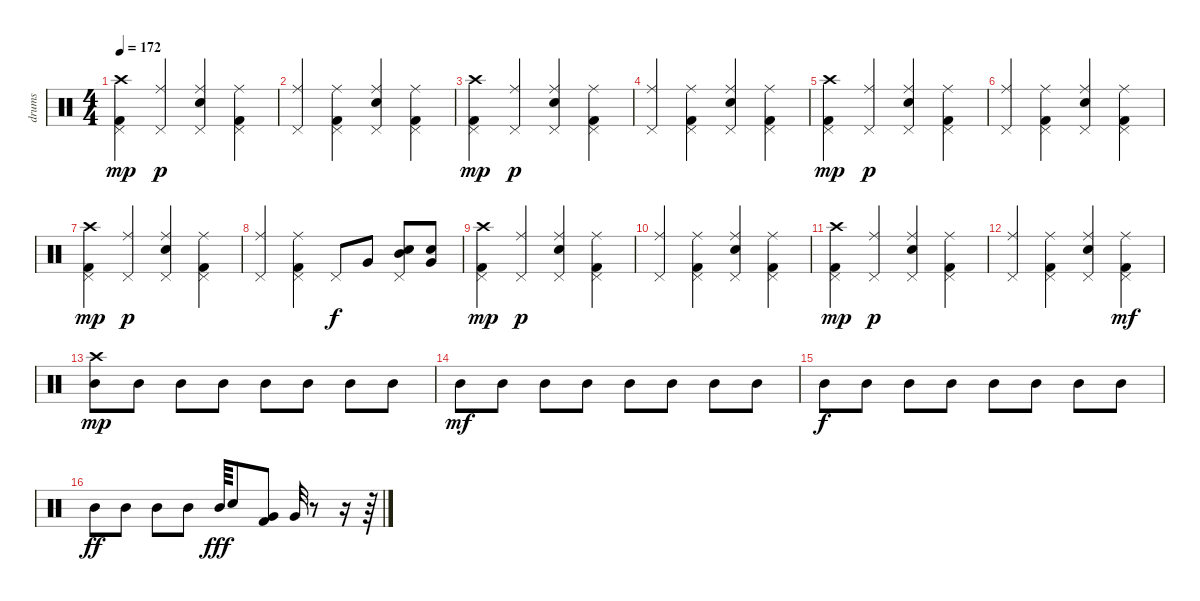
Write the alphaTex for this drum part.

\track ("drums" "drums") {instrument percussion}
\staff {score}
\articulation defaults
\ts (4 4)
\tempo 172
\clef neutral
\ks c
("Crash high (hit)" "Kick (hit) 2" "Pedal Hi-Hat (hit)").4{dy mp} ("Ride (middle)" "Pedal Hi-Hat (hit)").4{dy p} ("Ride (middle)" "Electric Snare (hit)" "Pedal Hi-Hat (hit)").4 ("Ride (middle)" "Kick (hit) 2" "Pedal Hi-Hat (hit)").4 |
("Ride (middle)" "Pedal Hi-Hat (hit)").4 ("Ride (middle)" "Kick (hit) 2" "Pedal Hi-Hat (hit)").4 ("Ride (middle)" "Electric Snare (hit)" "Pedal Hi-Hat (hit)").4 ("Ride (middle)" "Kick (hit) 2" "Pedal Hi-Hat (hit)").4 |
("Crash high (hit)" "Kick (hit) 2" "Pedal Hi-Hat (hit)").4{dy mp} ("Ride (middle)" "Pedal Hi-Hat (hit)").4{dy p} ("Ride (middle)" "Electric Snare (hit)" "Pedal Hi-Hat (hit)").4 ("Ride (middle)" "Kick (hit) 2" "Pedal Hi-Hat (hit)").4 |
("Ride (middle)" "Pedal Hi-Hat (hit)").4 ("Ride (middle)" "Kick (hit) 2" "Pedal Hi-Hat (hit)").4 ("Ride (middle)" "Electric Snare (hit)" "Pedal Hi-Hat (hit)").4 ("Ride (middle)" "Kick (hit) 2" "Pedal Hi-Hat (hit)").4 |
("Crash high (hit)" "Kick (hit) 2" "Pedal Hi-Hat (hit)").4{dy mp} ("Ride (middle)" "Pedal Hi-Hat (hit)").4{dy p} ("Ride (middle)" "Electric Snare (hit)" "Pedal Hi-Hat (hit)").4 ("Ride (middle)" "Kick (hit) 2" "Pedal Hi-Hat (hit)").4 |
("Ride (middle)" "Pedal Hi-Hat (hit)").4 ("Ride (middle)" "Kick (hit) 2" "Pedal Hi-Hat (hit)").4 ("Ride (middle)" "Electric Snare (hit)" "Pedal Hi-Hat (hit)").4 ("Ride (middle)" "Kick (hit) 2" "Pedal Hi-Hat (hit)").4 |
("Crash high (hit)" "Kick (hit) 2" "Pedal Hi-Hat (hit)").4{dy mp} ("Ride (middle)" "Pedal Hi-Hat (hit)").4{dy p} ("Ride (middle)" "Electric Snare (hit)" "Pedal Hi-Hat (hit)").4 ("Ride (middle)" "Kick (hit) 2" "Pedal Hi-Hat (hit)").4 |
("Ride (middle)" "Pedal Hi-Hat (hit)").4 ("Ride (middle)" "Kick (hit) 2" "Pedal Hi-Hat (hit)").4 "Pedal Hi-Hat (hit)".8{dy f} "Very Low Tom (hit)".8 ("Electric Snare (hit)" "Mid Tom (hit)" "Pedal Hi-Hat (hit)").8 ("Very Low Tom (hit)" "Electric Snare (hit)").8 |
("Crash high (hit)" "Kick (hit) 2" "Pedal Hi-Hat (hit)").4{dy mp} ("Ride (middle)" "Pedal Hi-Hat (hit)").4{dy p} ("Ride (middle)" "Electric Snare (hit)" "Pedal Hi-Hat (hit)").4 ("Ride (middle)" "Kick (hit) 2" "Pedal Hi-Hat (hit)").4 |
("Ride (middle)" "Pedal Hi-Hat (hit)").4 ("Ride (middle)" "Kick (hit) 2" "Pedal Hi-Hat (hit)").4 ("Ride (middle)" "Electric Snare (hit)" "Pedal Hi-Hat (hit)").4 ("Ride (middle)" "Kick (hit) 2" "Pedal Hi-Hat (hit)").4 |
("Crash high (hit)" "Kick (hit) 2" "Pedal Hi-Hat (hit)").4{dy mp} ("Ride (middle)" "Pedal Hi-Hat (hit)").4{dy p} ("Ride (middle)" "Electric Snare (hit)" "Pedal Hi-Hat (hit)").4 ("Ride (middle)" "Kick (hit) 2" "Pedal Hi-Hat (hit)").4 |
("Ride (middle)" "Pedal Hi-Hat (hit)").4 ("Ride (middle)" "Kick (hit) 2" "Pedal Hi-Hat (hit)").4 ("Ride (middle)" "Electric Snare (hit)" "Pedal Hi-Hat (hit)").4 ("Ride (middle)" "Kick (hit) 2" "Pedal Hi-Hat (hit)").4{dy mf} |
("Crash high (hit)" "Mid Tom (hit)").8{dy mp} "Mid Tom (hit)".8 "Mid Tom (hit)".8 "Mid Tom (hit)".8 "Mid Tom (hit)".8 "Mid Tom (hit)".8 "Mid Tom (hit)".8 "Mid Tom (hit)".8 |
"Mid Tom (hit)".8{dy mf} "Mid Tom (hit)".8 "Mid Tom (hit)".8 "Mid Tom (hit)".8 "Mid Tom (hit)".8 "Mid Tom (hit)".8 "Mid Tom (hit)".8 "Mid Tom (hit)".8 |
"Mid Tom (hit)".8{dy f} "Mid Tom (hit)".8 "Mid Tom (hit)".8 "Mid Tom (hit)".8 "Mid Tom (hit)".8 "Mid Tom (hit)".8 "Mid Tom (hit)".8 "Mid Tom (hit)".8 |
"Mid Tom (hit)".8{dy ff} "Mid Tom (hit)".8 "Mid Tom (hit)".8 "Mid Tom (hit)".8 "Mid Tom (hit)".64{dy fff} "Electric Snare (hit)".8 ("Kick (hit) 2" "Very Low Tom (hit)").8 "Very Low Tom (hit)".32 r.8 r.16 r.64
